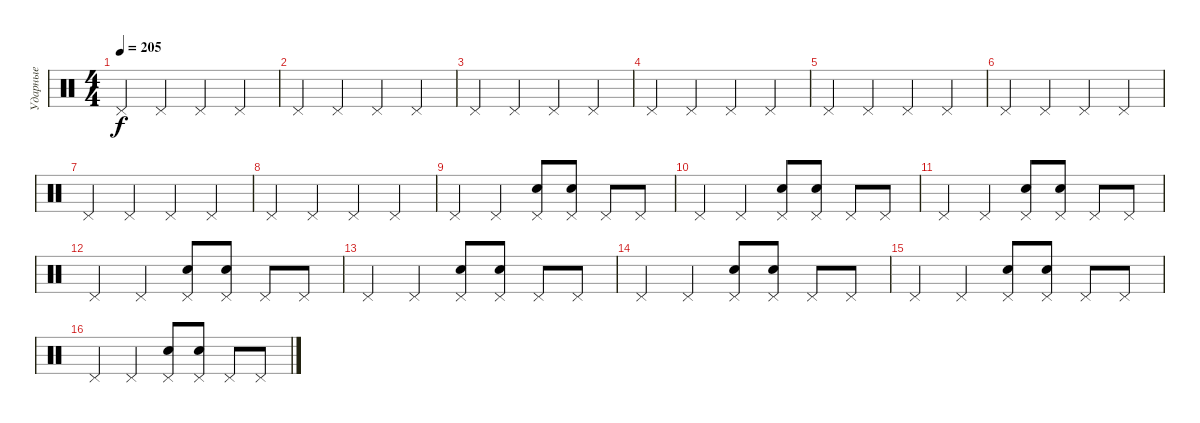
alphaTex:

\track ("Ударные" "Ударные") {instrument percussion}
\staff {score}
\articulation defaults
\ts (4 4)
\tempo 205
\clef neutral
\ks c "Pedal Hi-Hat (hit)".4{dy f} "Pedal Hi-Hat (hit)".4 "Pedal Hi-Hat (hit)".4 "Pedal Hi-Hat (hit)".4
|
"Pedal Hi-Hat (hit)".4 "Pedal Hi-Hat (hit)".4 "Pedal Hi-Hat (hit)".4 "Pedal Hi-Hat (hit)".4 |
"Pedal Hi-Hat (hit)".4 "Pedal Hi-Hat (hit)".4 "Pedal Hi-Hat (hit)".4 "Pedal Hi-Hat (hit)".4 |
"Pedal Hi-Hat (hit)".4 "Pedal Hi-Hat (hit)".4 "Pedal Hi-Hat (hit)".4 "Pedal Hi-Hat (hit)".4 |
"Pedal Hi-Hat (hit)".4 "Pedal Hi-Hat (hit)".4 "Pedal Hi-Hat (hit)".4 "Pedal Hi-Hat (hit)".4 |
"Pedal Hi-Hat (hit)".4 "Pedal Hi-Hat (hit)".4 "Pedal Hi-Hat (hit)".4 "Pedal Hi-Hat (hit)".4 |
"Pedal Hi-Hat (hit)".4 "Pedal Hi-Hat (hit)".4 "Pedal Hi-Hat (hit)".4 "Pedal Hi-Hat (hit)".4 |
"Pedal Hi-Hat (hit)".4 "Pedal Hi-Hat (hit)".4 "Pedal Hi-Hat (hit)".4 "Pedal Hi-Hat (hit)".4 |
"Pedal Hi-Hat (hit)".4 "Pedal Hi-Hat (hit)".4 ("Snare (hit) 2" "Pedal Hi-Hat (hit)").8 ("Snare (hit) 2" "Pedal Hi-Hat (hit)").8 "Pedal Hi-Hat (hit)".8 "Pedal Hi-Hat (hit)".8 |
"Pedal Hi-Hat (hit)".4 "Pedal Hi-Hat (hit)".4 ("Snare (hit) 2" "Pedal Hi-Hat (hit)").8 ("Snare (hit) 2" "Pedal Hi-Hat (hit)").8 "Pedal Hi-Hat (hit)".8 "Pedal Hi-Hat (hit)".8 |
"Pedal Hi-Hat (hit)".4 "Pedal Hi-Hat (hit)".4 ("Snare (hit) 2" "Pedal Hi-Hat (hit)").8 ("Snare (hit) 2" "Pedal Hi-Hat (hit)").8 "Pedal Hi-Hat (hit)".8 "Pedal Hi-Hat (hit)".8 |
"Pedal Hi-Hat (hit)".4 "Pedal Hi-Hat (hit)".4 ("Snare (hit) 2" "Pedal Hi-Hat (hit)").8 ("Snare (hit) 2" "Pedal Hi-Hat (hit)").8 "Pedal Hi-Hat (hit)".8 "Pedal Hi-Hat (hit)".8 |
"Pedal Hi-Hat (hit)".4 "Pedal Hi-Hat (hit)".4 ("Snare (hit) 2" "Pedal Hi-Hat (hit)").8 ("Snare (hit) 2" "Pedal Hi-Hat (hit)").8 "Pedal Hi-Hat (hit)".8 "Pedal Hi-Hat (hit)".8 |
"Pedal Hi-Hat (hit)".4 "Pedal Hi-Hat (hit)".4 ("Snare (hit) 2" "Pedal Hi-Hat (hit)").8 ("Snare (hit) 2" "Pedal Hi-Hat (hit)").8 "Pedal Hi-Hat (hit)".8 "Pedal Hi-Hat (hit)".8 |
"Pedal Hi-Hat (hit)".4 "Pedal Hi-Hat (hit)".4 ("Snare (hit) 2" "Pedal Hi-Hat (hit)").8 ("Snare (hit) 2" "Pedal Hi-Hat (hit)").8 "Pedal Hi-Hat (hit)".8 "Pedal Hi-Hat (hit)".8 |
"Pedal Hi-Hat (hit)".4 "Pedal Hi-Hat (hit)".4 ("Snare (hit) 2" "Pedal Hi-Hat (hit)").8 ("Snare (hit) 2" "Pedal Hi-Hat (hit)").8 "Pedal Hi-Hat (hit)".8 "Pedal Hi-Hat (hit)".8
